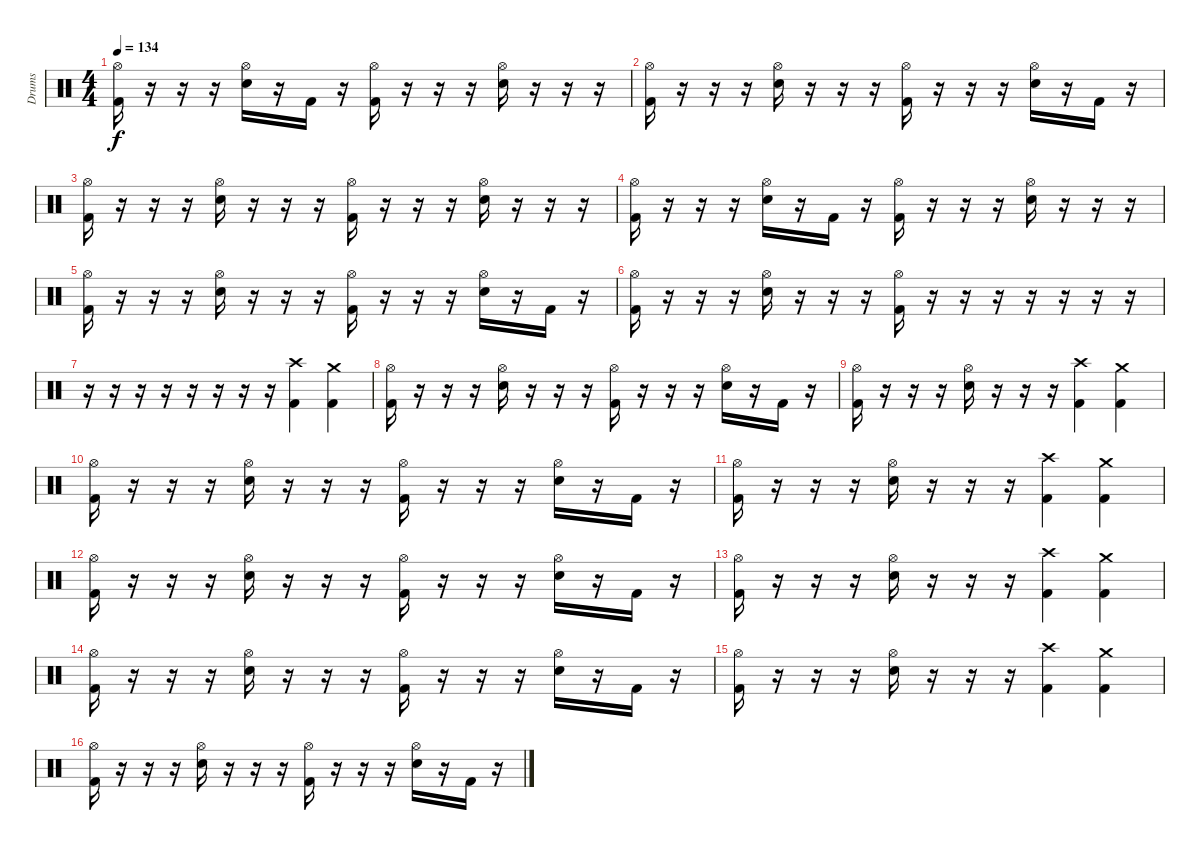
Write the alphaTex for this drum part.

\track ("Drums" "Drums") {instrument percussion}
\staff {score}
\articulation defaults
\ts (4 4)
\tempo 134
\clef neutral
\ks c
("Kick (hit) 2" "Hi-Hat (open)").16{dy f} r.16 r.16 r.16 ("Snare (hit) 2" "Hi-Hat (open)").16 r.16 "Kick (hit) 2".16 r.16 ("Kick (hit) 2" "Hi-Hat (open)").16 r.16 r.16 r.16 ("Snare (hit) 2" "Hi-Hat (open)").16 r.16 r.16 r.16 |
("Kick (hit) 2" "Hi-Hat (open)").16 r.16 r.16 r.16 ("Snare (hit) 2" "Hi-Hat (open)").16 r.16 r.16 r.16 ("Kick (hit) 2" "Hi-Hat (open)").16 r.16 r.16 r.16 ("Snare (hit) 2" "Hi-Hat (open)").16 r.16 "Kick (hit) 2".16 r.16 |
("Kick (hit) 2" "Hi-Hat (open)").16 r.16 r.16 r.16 ("Snare (hit) 2" "Hi-Hat (open)").16 r.16 r.16 r.16 ("Kick (hit) 2" "Hi-Hat (open)").16 r.16 r.16 r.16 ("Snare (hit) 2" "Hi-Hat (open)").16 r.16 r.16 r.16 |
("Kick (hit) 2" "Hi-Hat (open)").16 r.16 r.16 r.16 ("Snare (hit) 2" "Hi-Hat (open)").16 r.16 "Kick (hit) 2".16 r.16 ("Kick (hit) 2" "Hi-Hat (open)").16 r.16 r.16 r.16 ("Snare (hit) 2" "Hi-Hat (open)").16 r.16 r.16 r.16 |
("Kick (hit) 2" "Hi-Hat (open)").16 r.16 r.16 r.16 ("Snare (hit) 2" "Hi-Hat (open)").16 r.16 r.16 r.16 ("Kick (hit) 2" "Hi-Hat (open)").16 r.16 r.16 r.16 ("Snare (hit) 2" "Hi-Hat (open)").16 r.16 "Kick (hit) 2".16 r.16 |
("Kick (hit) 2" "Hi-Hat (open)").16 r.16 r.16 r.16 ("Snare (hit) 2" "Hi-Hat (open)").16 r.16 r.16 r.16 ("Kick (hit) 2" "Hi-Hat (open)").16 r.16 r.16 r.16 r.16 r.16 r.16 r.16 |
r.16 r.16 r.16 r.16 r.16 r.16 r.16 r.16 ("Crash high (hit)" "Kick (hit) 2").4 ("Crash medium (hit)" "Kick (hit) 2").4 |
("Kick (hit) 2" "Hi-Hat (open)").16 r.16 r.16 r.16 ("Snare (hit) 2" "Hi-Hat (open)").16 r.16 r.16 r.16 ("Kick (hit) 2" "Hi-Hat (open)").16 r.16 r.16 r.16 ("Snare (hit) 2" "Hi-Hat (open)").16 r.16 "Kick (hit) 2".16 r.16 |
("Kick (hit) 2" "Hi-Hat (open)").16 r.16 r.16 r.16 ("Snare (hit) 2" "Hi-Hat (open)").16 r.16 r.16 r.16 ("Crash high (hit)" "Kick (hit) 2").4 ("Crash medium (hit)" "Kick (hit) 2").4 |
("Kick (hit) 2" "Hi-Hat (open)").16 r.16 r.16 r.16 ("Snare (hit) 2" "Hi-Hat (open)").16 r.16 r.16 r.16 ("Kick (hit) 2" "Hi-Hat (open)").16 r.16 r.16 r.16 ("Snare (hit) 2" "Hi-Hat (open)").16 r.16 "Kick (hit) 2".16 r.16 |
("Kick (hit) 2" "Hi-Hat (open)").16 r.16 r.16 r.16 ("Snare (hit) 2" "Hi-Hat (open)").16 r.16 r.16 r.16 ("Crash high (hit)" "Kick (hit) 2").4 ("Crash medium (hit)" "Kick (hit) 2").4 |
("Kick (hit) 2" "Hi-Hat (open)").16 r.16 r.16 r.16 ("Snare (hit) 2" "Hi-Hat (open)").16 r.16 r.16 r.16 ("Kick (hit) 2" "Hi-Hat (open)").16 r.16 r.16 r.16 ("Snare (hit) 2" "Hi-Hat (open)").16 r.16 "Kick (hit) 2".16 r.16 |
("Kick (hit) 2" "Hi-Hat (open)").16 r.16 r.16 r.16 ("Snare (hit) 2" "Hi-Hat (open)").16 r.16 r.16 r.16 ("Crash high (hit)" "Kick (hit) 2").4 ("Crash medium (hit)" "Kick (hit) 2").4 |
("Kick (hit) 2" "Hi-Hat (open)").16 r.16 r.16 r.16 ("Snare (hit) 2" "Hi-Hat (open)").16 r.16 r.16 r.16 ("Kick (hit) 2" "Hi-Hat (open)").16 r.16 r.16 r.16 ("Snare (hit) 2" "Hi-Hat (open)").16 r.16 "Kick (hit) 2".16 r.16 |
("Kick (hit) 2" "Hi-Hat (open)").16 r.16 r.16 r.16 ("Snare (hit) 2" "Hi-Hat (open)").16 r.16 r.16 r.16 ("Crash high (hit)" "Kick (hit) 2").4 ("Crash medium (hit)" "Kick (hit) 2").4 |
("Kick (hit) 2" "Hi-Hat (open)").16 r.16 r.16 r.16 ("Snare (hit) 2" "Hi-Hat (open)").16 r.16 r.16 r.16 ("Kick (hit) 2" "Hi-Hat (open)").16 r.16 r.16 r.16 ("Snare (hit) 2" "Hi-Hat (open)").16 r.16 "Kick (hit) 2".16 r.16
